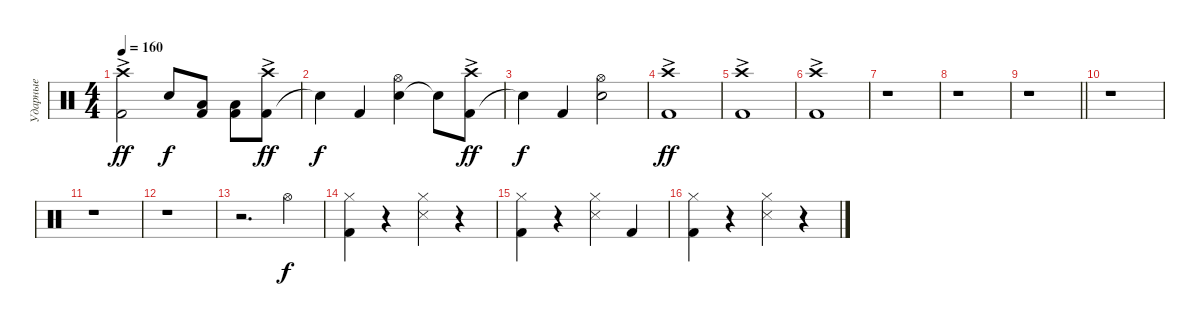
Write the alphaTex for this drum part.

\track ("Ударные" "Ударные") {instrument percussion}
\staff
\articulation defaults
\ts (4 4)
\tempo 160
\clef neutral
\ks c
("Kick (hit) 2" "Crash high (hit)"{ac}).2{dy ff} "Snare (hit) 2".8{dy f} ("Kick (hit) 2" "Low Tom (hit)").8 ("Kick (hit) 2" "Low Tom (hit)").8 ("Kick (hit) 2" "Crash high (hit)"{ac}).8{dy ff} |
"Snare (hit)"{t}.4{dy f} "Kick (hit) 2".4 ("Snare (hit) 2" "Hi-Hat (open)").4 "Snare (hit)"{t}.8 ("Kick (hit) 2" "Crash high (hit)"{ac}).8{dy ff} |
"Snare (hit)"{t}.4{dy f} "Kick (hit) 2".4 ("Snare (hit) 2" "Hi-Hat (open)").2 |
("Kick (hit) 2" "Crash high (hit)"{ac}).1{dy ff} |
("Kick (hit) 2" "Crash high (hit)"{ac}).1 |
("Kick (hit) 2" "Crash high (hit)"{ac}).1 |
r.1 |
r.1 |
\barLineRight lightlight
r.1 |
r.1 |
r.1 |
r.1 |
r.2{d} "Hi-Hat (open)".4{dy f} |
("Kick (hit) 2" "Hi-Hat (closed)").4 r.4 ("Snare (side stick) 3" "Hi-Hat (closed)").4 r.4 |
("Kick (hit) 2" "Hi-Hat (closed)").4 r.4 ("Snare (side stick) 3" "Hi-Hat (closed)").4 "Kick (hit) 2".4 |
("Kick (hit) 2" "Hi-Hat (closed)").4 r.4 ("Snare (side stick) 3" "Hi-Hat (closed)").4 r.4
